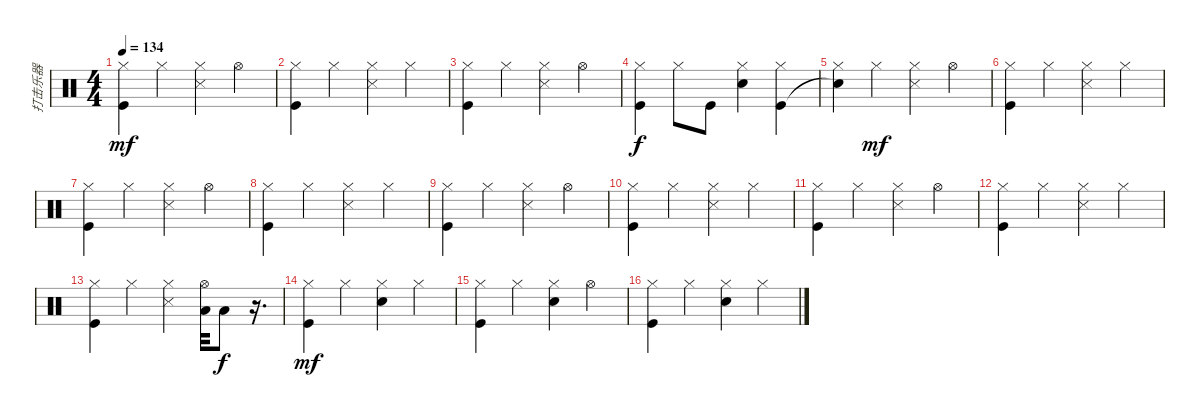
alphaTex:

\track ("打击乐器" "打击乐器") {instrument percussion}
\staff {score}
\articulation defaults
\ts (4 4)
\tempo 134
\clef neutral
\ks c
("Hi-Hat (closed)" "Kick (hit)").4{dy mf} "Hi-Hat (closed)".4 ("Hi-Hat (closed)" "Snare (side stick) 3").4 "Hi-Hat (open)".4 |
("Hi-Hat (closed)" "Kick (hit)").4 "Hi-Hat (closed)".4 ("Hi-Hat (closed)" "Snare (side stick) 3").4 "Hi-Hat (closed)".4 |
("Hi-Hat (closed)" "Kick (hit)").4 "Hi-Hat (closed)".4 ("Hi-Hat (closed)" "Snare (side stick) 3").4 "Hi-Hat (open)".4 |
("Hi-Hat (closed)" "Kick (hit)").4{dy f} "Hi-Hat (closed)".8 "Kick (hit)".8 ("Hi-Hat (closed)" "Electric Snare (hit)").4 ("Hi-Hat (closed)" "Kick (hit)").4 |
("Hi-Hat (closed)" "Snare (hit)"{t}).4 "Hi-Hat (closed)".4{dy mf} ("Hi-Hat (closed)" "Snare (side stick) 3").4 "Hi-Hat (open)".4 |
("Hi-Hat (closed)" "Kick (hit)").4 "Hi-Hat (closed)".4 ("Hi-Hat (closed)" "Snare (side stick) 3").4 "Hi-Hat (closed)".4 |
("Hi-Hat (closed)" "Kick (hit)").4 "Hi-Hat (closed)".4 ("Hi-Hat (closed)" "Snare (side stick) 3").4 "Hi-Hat (open)".4 |
("Hi-Hat (closed)" "Kick (hit)").4 "Hi-Hat (closed)".4 ("Hi-Hat (closed)" "Snare (side stick) 3").4 "Hi-Hat (closed)".4 |
("Hi-Hat (closed)" "Kick (hit)").4 "Hi-Hat (closed)".4 ("Hi-Hat (closed)" "Snare (side stick) 3").4 "Hi-Hat (open)".4 |
("Hi-Hat (closed)" "Kick (hit)").4 "Hi-Hat (closed)".4 ("Hi-Hat (closed)" "Snare (side stick) 3").4 "Hi-Hat (closed)".4 |
("Hi-Hat (closed)" "Kick (hit)").4 "Hi-Hat (closed)".4 ("Hi-Hat (closed)" "Snare (side stick) 3").4 "Hi-Hat (open)".4 |
("Hi-Hat (closed)" "Kick (hit)").4 "Hi-Hat (closed)".4 ("Hi-Hat (closed)" "Snare (side stick) 3").4 "Hi-Hat (closed)".4 |
("Hi-Hat (closed)" "Kick (hit)").4 "Hi-Hat (closed)".4 ("Hi-Hat (closed)" "Snare (side stick) 3").4 ("Hi-Hat (open)" "Low Tom (hit)").32 "Low Tom (hit)".8{dy f} r.16{d} |
("Hi-Hat (closed)" "Kick (hit)").4{dy mf} "Hi-Hat (closed)".4 ("Hi-Hat (closed)" "Electric Snare (hit)").4 "Hi-Hat (closed)".4 |
("Hi-Hat (closed)" "Kick (hit)").4 "Hi-Hat (closed)".4 ("Hi-Hat (closed)" "Electric Snare (hit)").4 "Hi-Hat (open)".4 |
("Hi-Hat (closed)" "Kick (hit)").4 "Hi-Hat (closed)".4 ("Hi-Hat (closed)" "Electric Snare (hit)").4 "Hi-Hat (closed)".4
